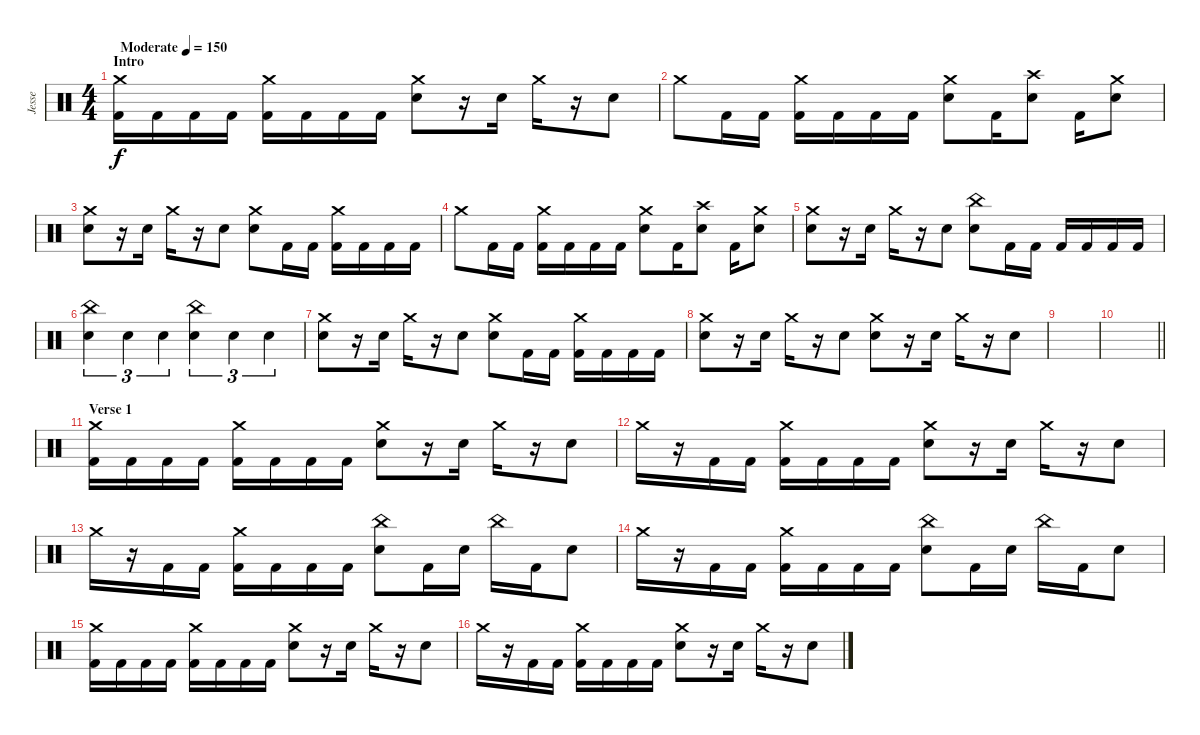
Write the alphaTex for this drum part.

\track ("Jesse" "Jesse") {instrument percussion}
\staff {score}
\articulation defaults
\ts (4 4)
\section ("" "Intro")
\tempo (150 "Moderate")
\clef neutral
\ks c
("Crash medium (hit)" "Kick (hit) 2").16{dy f} "Kick (hit) 2".16 "Kick (hit) 2".16 "Kick (hit) 2".16 ("Crash medium (hit)" "Kick (hit) 2").16 "Kick (hit) 2".16 "Kick (hit) 2".16 "Kick (hit) 2".16 ("Crash medium (hit)" "Electric Snare (hit)").8 r.16 "Electric Snare (hit)".16 "Crash medium (hit)".16 r.16 "Electric Snare (hit)".8 |
"Crash medium (hit)".8 "Kick (hit) 2".16 "Kick (hit) 2".16 ("Crash medium (hit)" "Kick (hit) 2").16 "Kick (hit) 2".16 "Kick (hit) 2".16 "Kick (hit) 2".16 ("Crash medium (hit)" "Electric Snare (hit)").8 "Kick (hit) 2".16 ("Crash high (hit)" "Electric Snare (hit)").8 "Kick (hit) 2".16 ("Crash medium (hit)" "Electric Snare (hit)").8 |
("Crash medium (hit)" "Electric Snare (hit)").8 r.16 "Electric Snare (hit)".16 "Crash medium (hit)".16 r.16 "Electric Snare (hit)".8 ("Crash medium (hit)" "Electric Snare (hit)").8 "Kick (hit) 2".16 "Kick (hit) 2".16 ("Crash medium (hit)" "Kick (hit) 2").16 "Kick (hit) 2".16 "Kick (hit) 2".16 "Kick (hit) 2".16 |
"Crash medium (hit)".8 "Kick (hit) 2".16 "Kick (hit) 2".16 ("Crash medium (hit)" "Kick (hit) 2").16 "Kick (hit) 2".16 "Kick (hit) 2".16 "Kick (hit) 2".16 ("Crash medium (hit)" "Electric Snare (hit)").8 "Kick (hit) 2".16 ("Crash high (hit)" "Electric Snare (hit)").8 "Kick (hit) 2".16 ("Crash medium (hit)" "Electric Snare (hit)").8 |
("Crash medium (hit)" "Electric Snare (hit)").8 r.16 "Electric Snare (hit)".16 "Crash medium (hit)".16 r.16 "Electric Snare (hit)".8 ("China (hit)" "Electric Snare (hit)").8 "Kick (hit) 2".16 "Kick (hit) 2".16 "Kick (hit) 2".16 "Kick (hit) 2".16 "Kick (hit) 2".16 "Kick (hit) 2".16 |
("China (hit)" "Electric Snare (hit)").4{tu (3 2)} "Electric Snare (hit)".4{tu (3 2)} "Electric Snare (hit)".4{tu (3 2)} ("China (hit)" "Electric Snare (hit)").4{tu (3 2)} "Electric Snare (hit)".4{tu (3 2)} "Electric Snare (hit)".4{tu (3 2)} |
("Crash medium (hit)" "Electric Snare (hit)").8 r.16 "Electric Snare (hit)".16 "Crash medium (hit)".16 r.16 "Electric Snare (hit)".8 ("Crash medium (hit)" "Electric Snare (hit)").8 "Kick (hit) 2".16 "Kick (hit) 2".16 ("Crash medium (hit)" "Kick (hit) 2").16 "Kick (hit) 2".16 "Kick (hit) 2".16 "Kick (hit) 2".16 |
("Crash medium (hit)" "Electric Snare (hit)").8 r.16 "Electric Snare (hit)".16 "Crash medium (hit)".16 r.16 "Electric Snare (hit)".8 ("Crash medium (hit)" "Electric Snare (hit)").8 r.16 "Electric Snare (hit)".16 "Crash medium (hit)".16 r.16 "Electric Snare (hit)".8 |
|
\barLineRight lightlight
|
\section ("" "Verse 1")
("Crash medium (hit)" "Kick (hit) 2").16 "Kick (hit) 2".16 "Kick (hit) 2".16 "Kick (hit) 2".16 ("Crash medium (hit)" "Kick (hit) 2").16 "Kick (hit) 2".16 "Kick (hit) 2".16 "Kick (hit) 2".16 ("Crash medium (hit)" "Electric Snare (hit)").8 r.16 "Electric Snare (hit)".16 "Crash medium (hit)".16 r.16 "Electric Snare (hit)".8 |
"Crash medium (hit)".16 r.16 "Kick (hit) 2".16 "Kick (hit) 2".16 ("Crash medium (hit)" "Kick (hit) 2").16 "Kick (hit) 2".16 "Kick (hit) 2".16 "Kick (hit) 2".16 ("Crash medium (hit)" "Electric Snare (hit)").8 r.16 "Electric Snare (hit)".16 "Crash medium (hit)".16 r.16 "Electric Snare (hit)".8 |
"Crash medium (hit)".16 r.16 "Kick (hit) 2".16 "Kick (hit) 2".16 ("Crash medium (hit)" "Kick (hit) 2").16 "Kick (hit) 2".16 "Kick (hit) 2".16 "Kick (hit) 2".16 ("China (hit)" "Electric Snare (hit)").8 "Kick (hit) 2".16 "Electric Snare (hit)".16 "China (hit)".16 "Kick (hit) 2".16 "Electric Snare (hit)".8 |
"Crash medium (hit)".16 r.16 "Kick (hit) 2".16 "Kick (hit) 2".16 ("Crash medium (hit)" "Kick (hit) 2").16 "Kick (hit) 2".16 "Kick (hit) 2".16 "Kick (hit) 2".16 ("China (hit)" "Electric Snare (hit)").8 "Kick (hit) 2".16 "Electric Snare (hit)".16 "China (hit)".16 "Kick (hit) 2".16 "Electric Snare (hit)".8 |
("Crash medium (hit)" "Kick (hit) 2").16 "Kick (hit) 2".16 "Kick (hit) 2".16 "Kick (hit) 2".16 ("Crash medium (hit)" "Kick (hit) 2").16 "Kick (hit) 2".16 "Kick (hit) 2".16 "Kick (hit) 2".16 ("Crash medium (hit)" "Electric Snare (hit)").8 r.16 "Electric Snare (hit)".16 "Crash medium (hit)".16 r.16 "Electric Snare (hit)".8 |
"Crash medium (hit)".16 r.16 "Kick (hit) 2".16 "Kick (hit) 2".16 ("Crash medium (hit)" "Kick (hit) 2").16 "Kick (hit) 2".16 "Kick (hit) 2".16 "Kick (hit) 2".16 ("Crash medium (hit)" "Electric Snare (hit)").8 r.16 "Electric Snare (hit)".16 "Crash medium (hit)".16 r.16 "Electric Snare (hit)".8
